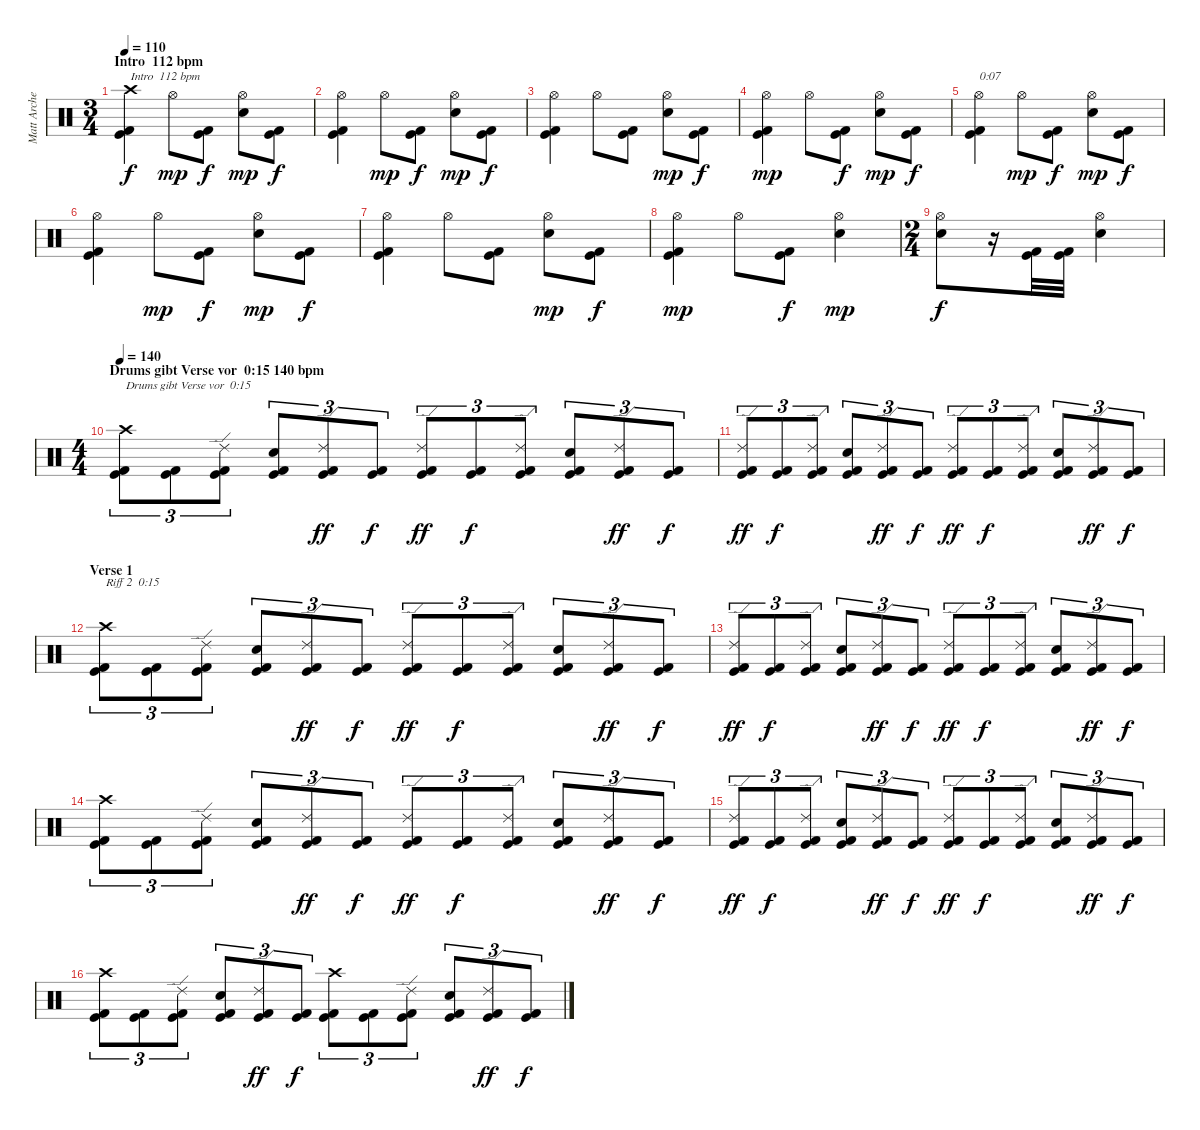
\track ("Matt Archer" "Matt Arche") {instrument percussion}
\staff {score}
\articulation defaults
\ts (3 4)
\section ("" "Intro  112 bpm")
\tempo 110
\clef neutral
\ks c
("Kick (hit)" "Kick (hit) 2" "Crash high (hit)").4{txt "Intro  112 bpm" dy f} "Hi-Hat (open)".8{dy mp} ("Kick (hit)" "Kick (hit) 2").8{dy f} ("Electric Snare (hit)" "Hi-Hat (open)").8{dy mp} ("Kick (hit)" "Kick (hit) 2").8{dy f} |
("Kick (hit)" "Kick (hit) 2" "Hi-Hat (open)").4 "Hi-Hat (open)".8{dy mp} ("Kick (hit)" "Kick (hit) 2").8{dy f} ("Electric Snare (hit)" "Hi-Hat (open)").8{dy mp} ("Kick (hit)" "Kick (hit) 2").8{dy f} |
("Kick (hit)" "Kick (hit) 2" "Hi-Hat (open)").4 "Hi-Hat (open)".8 ("Kick (hit)" "Kick (hit) 2").8 ("Electric Snare (hit)" "Hi-Hat (open)").8{dy mp} ("Kick (hit)" "Kick (hit) 2").8{dy f} |
("Kick (hit)" "Kick (hit) 2" "Hi-Hat (open)").4{dy mp} "Hi-Hat (open)".8 ("Kick (hit)" "Kick (hit) 2").8{dy f} ("Electric Snare (hit)" "Hi-Hat (open)").8{dy mp} ("Kick (hit)" "Kick (hit) 2").8{dy f} |
("Kick (hit)" "Kick (hit) 2" "Hi-Hat (open)").4{txt "0:07"} "Hi-Hat (open)".8{dy mp} ("Kick (hit)" "Kick (hit) 2").8{dy f} ("Electric Snare (hit)" "Hi-Hat (open)").8{dy mp} ("Kick (hit)" "Kick (hit) 2").8{dy f} |
("Kick (hit)" "Kick (hit) 2" "Hi-Hat (open)").4 "Hi-Hat (open)".8{dy mp} ("Kick (hit)" "Kick (hit) 2").8{dy f} ("Electric Snare (hit)" "Hi-Hat (open)").8{dy mp} ("Kick (hit)" "Kick (hit) 2").8{dy f} |
("Kick (hit)" "Kick (hit) 2" "Hi-Hat (open)").4 "Hi-Hat (open)".8 ("Kick (hit)" "Kick (hit) 2").8 ("Electric Snare (hit)" "Hi-Hat (open)").8{dy mp} ("Kick (hit)" "Kick (hit) 2").8{dy f} |
("Kick (hit)" "Kick (hit) 2" "Hi-Hat (open)").4{dy mp} "Hi-Hat (open)".8 ("Kick (hit)" "Kick (hit) 2").8{dy f} ("Electric Snare (hit)" "Hi-Hat (open)").4{dy mp} |
\ts (2 4)
("Electric Snare (hit)" "Hi-Hat (open)").8{dy f} r.16 ("Kick (hit)" "Kick (hit) 2").32 ("Kick (hit)" "Kick (hit) 2").32 ("Electric Snare (hit)" "Hi-Hat (open)").4 |
\ts (4 4)
\section ("" "Drums gibt Verse vor  0:15 140 bpm")
\tempo 140
("Kick (hit)" "Kick (hit) 2" "Crash high (hit)").8{tu (3 2) txt "Drums gibt Verse vor  0:15"} ("Kick (hit)" "Kick (hit) 2").8{tu (3 2)} ("Kick (hit)" "Kick (hit) 2" "Ride (edge) 2").8{tu (3 2)} ("Kick (hit)" "Kick (hit) 2" "Electric Snare (hit)").8{tu (3 2)} ("Kick (hit)" "Kick (hit) 2" "Ride (edge) 2").8{tu (3 2) dy ff} ("Kick (hit)" "Kick (hit) 2").8{tu (3 2) dy f} ("Kick (hit)" "Kick (hit) 2" "Ride (edge) 2").8{tu (3 2) dy ff} ("Kick (hit)" "Kick (hit) 2").8{tu (3 2) dy f} ("Kick (hit)" "Kick (hit) 2" "Ride (edge) 2").8{tu (3 2)} ("Kick (hit)" "Kick (hit) 2" "Electric Snare (hit)").8{tu (3 2)} ("Kick (hit)" "Kick (hit) 2" "Ride (edge) 2").8{tu (3 2) dy ff} ("Kick (hit)" "Kick (hit) 2").8{tu (3 2) dy f} |
("Kick (hit)" "Kick (hit) 2" "Ride (edge) 2").8{tu (3 2) dy ff} ("Kick (hit)" "Kick (hit) 2").8{tu (3 2) dy f} ("Kick (hit)" "Kick (hit) 2" "Ride (edge) 2").8{tu (3 2)} ("Kick (hit)" "Kick (hit) 2" "Electric Snare (hit)").8{tu (3 2)} ("Kick (hit)" "Kick (hit) 2" "Ride (edge) 2").8{tu (3 2) dy ff} ("Kick (hit)" "Kick (hit) 2").8{tu (3 2) dy f} ("Kick (hit)" "Kick (hit) 2" "Ride (edge) 2").8{tu (3 2) dy ff} ("Kick (hit)" "Kick (hit) 2").8{tu (3 2) dy f} ("Kick (hit)" "Kick (hit) 2" "Ride (edge) 2").8{tu (3 2)} ("Kick (hit)" "Kick (hit) 2" "Electric Snare (hit)").8{tu (3 2)} ("Kick (hit)" "Kick (hit) 2" "Ride (edge) 2").8{tu (3 2) dy ff} ("Kick (hit)" "Kick (hit) 2").8{tu (3 2) dy f} |
\section ("" "Verse 1")
("Kick (hit)" "Kick (hit) 2" "Crash high (hit)").8{tu (3 2) txt "Riff 2  0:15"} ("Kick (hit)" "Kick (hit) 2").8{tu (3 2)} ("Kick (hit)" "Kick (hit) 2" "Ride (edge) 2").8{tu (3 2)} ("Kick (hit)" "Kick (hit) 2" "Electric Snare (hit)").8{tu (3 2)} ("Kick (hit)" "Kick (hit) 2" "Ride (edge) 2").8{tu (3 2) dy ff} ("Kick (hit)" "Kick (hit) 2").8{tu (3 2) dy f} ("Kick (hit)" "Kick (hit) 2" "Ride (edge) 2").8{tu (3 2) dy ff} ("Kick (hit)" "Kick (hit) 2").8{tu (3 2) dy f} ("Kick (hit)" "Kick (hit) 2" "Ride (edge) 2").8{tu (3 2)} ("Kick (hit)" "Kick (hit) 2" "Electric Snare (hit)").8{tu (3 2)} ("Kick (hit)" "Kick (hit) 2" "Ride (edge) 2").8{tu (3 2) dy ff} ("Kick (hit)" "Kick (hit) 2").8{tu (3 2) dy f} |
("Kick (hit)" "Kick (hit) 2" "Ride (edge) 2").8{tu (3 2) dy ff} ("Kick (hit)" "Kick (hit) 2").8{tu (3 2) dy f} ("Kick (hit)" "Kick (hit) 2" "Ride (edge) 2").8{tu (3 2)} ("Kick (hit)" "Kick (hit) 2" "Electric Snare (hit)").8{tu (3 2)} ("Kick (hit)" "Kick (hit) 2" "Ride (edge) 2").8{tu (3 2) dy ff} ("Kick (hit)" "Kick (hit) 2").8{tu (3 2) dy f} ("Kick (hit)" "Kick (hit) 2" "Ride (edge) 2").8{tu (3 2) dy ff} ("Kick (hit)" "Kick (hit) 2").8{tu (3 2) dy f} ("Kick (hit)" "Kick (hit) 2" "Ride (edge) 2").8{tu (3 2)} ("Kick (hit)" "Kick (hit) 2" "Electric Snare (hit)").8{tu (3 2)} ("Kick (hit)" "Kick (hit) 2" "Ride (edge) 2").8{tu (3 2) dy ff} ("Kick (hit)" "Kick (hit) 2").8{tu (3 2) dy f} |
("Kick (hit)" "Kick (hit) 2" "Crash high (hit)").8{tu (3 2)} ("Kick (hit)" "Kick (hit) 2").8{tu (3 2)} ("Kick (hit)" "Kick (hit) 2" "Ride (edge) 2").8{tu (3 2)} ("Kick (hit)" "Kick (hit) 2" "Electric Snare (hit)").8{tu (3 2)} ("Kick (hit)" "Kick (hit) 2" "Ride (edge) 2").8{tu (3 2) dy ff} ("Kick (hit)" "Kick (hit) 2").8{tu (3 2) dy f} ("Kick (hit)" "Kick (hit) 2" "Ride (edge) 2").8{tu (3 2) dy ff} ("Kick (hit)" "Kick (hit) 2").8{tu (3 2) dy f} ("Kick (hit)" "Kick (hit) 2" "Ride (edge) 2").8{tu (3 2)} ("Kick (hit)" "Kick (hit) 2" "Electric Snare (hit)").8{tu (3 2)} ("Kick (hit)" "Kick (hit) 2" "Ride (edge) 2").8{tu (3 2) dy ff} ("Kick (hit)" "Kick (hit) 2").8{tu (3 2) dy f} |
("Kick (hit)" "Kick (hit) 2" "Ride (edge) 2").8{tu (3 2) dy ff} ("Kick (hit)" "Kick (hit) 2").8{tu (3 2) dy f} ("Kick (hit)" "Kick (hit) 2" "Ride (edge) 2").8{tu (3 2)} ("Kick (hit)" "Kick (hit) 2" "Electric Snare (hit)").8{tu (3 2)} ("Kick (hit)" "Kick (hit) 2" "Ride (edge) 2").8{tu (3 2) dy ff} ("Kick (hit)" "Kick (hit) 2").8{tu (3 2) dy f} ("Kick (hit)" "Kick (hit) 2" "Ride (edge) 2").8{tu (3 2) dy ff} ("Kick (hit)" "Kick (hit) 2").8{tu (3 2) dy f} ("Kick (hit)" "Kick (hit) 2" "Ride (edge) 2").8{tu (3 2)} ("Kick (hit)" "Kick (hit) 2" "Electric Snare (hit)").8{tu (3 2)} ("Kick (hit)" "Kick (hit) 2" "Ride (edge) 2").8{tu (3 2) dy ff} ("Kick (hit)" "Kick (hit) 2").8{tu (3 2) dy f} |
("Kick (hit)" "Kick (hit) 2" "Crash high (hit)").8{tu (3 2)} ("Kick (hit)" "Kick (hit) 2").8{tu (3 2)} ("Kick (hit)" "Kick (hit) 2" "Ride (edge) 2").8{tu (3 2)} ("Kick (hit)" "Kick (hit) 2" "Electric Snare (hit)").8{tu (3 2)} ("Kick (hit)" "Kick (hit) 2" "Ride (edge) 2").8{tu (3 2) dy ff} ("Kick (hit)" "Kick (hit) 2").8{tu (3 2) dy f} ("Kick (hit)" "Kick (hit) 2" "Crash high (hit)").8{tu (3 2)} ("Kick (hit)" "Kick (hit) 2").8{tu (3 2)} ("Kick (hit)" "Kick (hit) 2" "Ride (edge) 2").8{tu (3 2)} ("Kick (hit)" "Kick (hit) 2" "Electric Snare (hit)").8{tu (3 2)} ("Kick (hit)" "Kick (hit) 2" "Ride (edge) 2").8{tu (3 2) dy ff} ("Kick (hit)" "Kick (hit) 2").8{tu (3 2) dy f}
